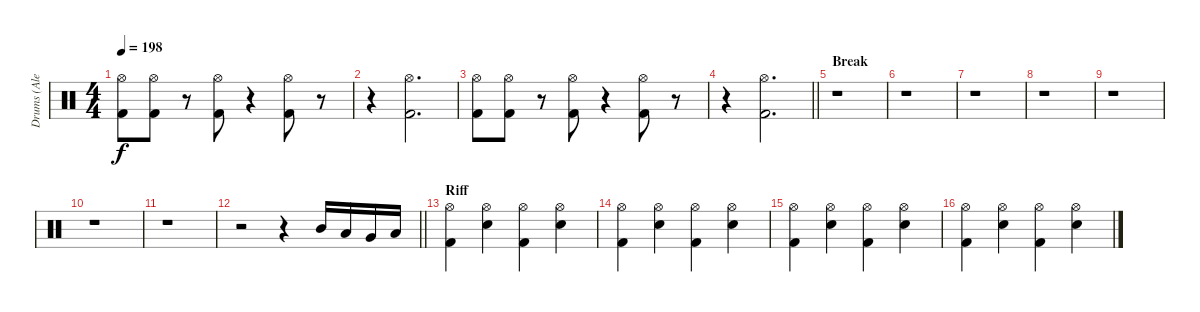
\track ("Drums (Alex Van Halen)" "Drums (Ale") {instrument percussion}
\staff {score}
\articulation defaults
\ts (4 4)
\tempo 198
\clef neutral
\ks c
("Kick (hit) 2" "Hi-Hat (open)").8{dy f} ("Kick (hit) 2" "Hi-Hat (open)").8 r.8 ("Kick (hit) 2" "Hi-Hat (open)").8 r.4 ("Kick (hit) 2" "Hi-Hat (open)").8 r.8 |
r.4 ("Kick (hit) 2" "Hi-Hat (open)").2{d} |
("Kick (hit) 2" "Hi-Hat (open)").8 ("Kick (hit) 2" "Hi-Hat (open)").8 r.8 ("Kick (hit) 2" "Hi-Hat (open)").8 r.4 ("Kick (hit) 2" "Hi-Hat (open)").8 r.8 |
\barLineRight lightlight
r.4 ("Kick (hit) 2" "Hi-Hat (open)").2{d} |
\section ("" "Break")
r.1 |
r.1 |
r.1 |
r.1 |
r.1 |
r.1 |
r.1 |
\barLineRight lightlight
r.2 r.4 "Mid Tom (hit)".16 "Low Tom (hit)".16 "Very Low Tom (hit)".16 "Low Floor Tom (hit)".16 |
\section ("" "Riff")
("Kick (hit) 2" "Hi-Hat (open)").4 ("Snare (hit) 2" "Hi-Hat (open)").4 ("Kick (hit) 2" "Hi-Hat (open)").4 ("Snare (hit) 2" "Hi-Hat (open)").4 |
("Kick (hit) 2" "Hi-Hat (open)").4 ("Snare (hit) 2" "Hi-Hat (open)").4 ("Kick (hit) 2" "Hi-Hat (open)").4 ("Snare (hit) 2" "Hi-Hat (open)").4 |
("Kick (hit) 2" "Hi-Hat (open)").4 ("Snare (hit) 2" "Hi-Hat (open)").4 ("Kick (hit) 2" "Hi-Hat (open)").4 ("Snare (hit) 2" "Hi-Hat (open)").4 |
("Kick (hit) 2" "Hi-Hat (open)").4 ("Snare (hit) 2" "Hi-Hat (open)").4 ("Kick (hit) 2" "Hi-Hat (open)").4 ("Snare (hit) 2" "Hi-Hat (open)").4
